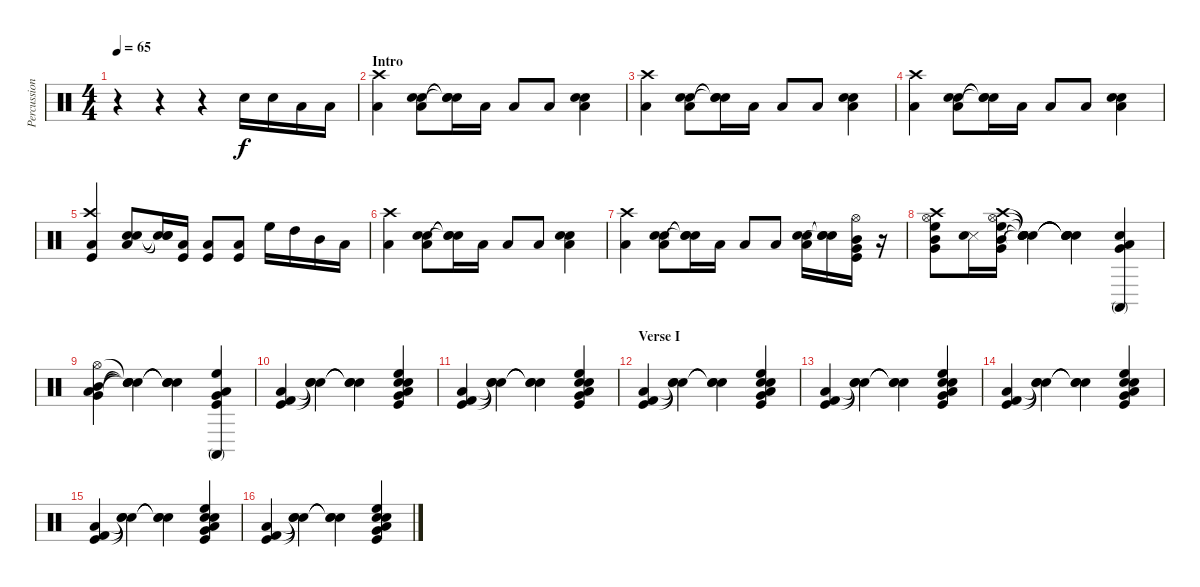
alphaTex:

\track ("Percussion" "Percussion") {instrument percussion}
\staff {score}
\articulation defaults
\ts (4 4)
\tempo 65
\clef neutral
\ks c
r.4{dy f} r.4 r.4 "Electric Snare (hit)".16 "Snare (hit) 2".16 "Low Tom (hit)".16 "Low Floor Tom (hit)".16 |
\section ("" "Intro")
("Crash high (hit)" "Low Tom (hit)").4 ("Snare (hit) 2" "Electric Snare (hit)" "Low Tom (hit)").8 ("Snare (hit)"{t} "Snare (hit)"{t} "Snare (hit)"{t}).16 "Low Tom (hit)".16 "Low Tom (hit)".8 "Low Tom (hit)".8 ("Snare (hit) 2" "Electric Snare (hit)" "Low Tom (hit)").4 |
("Crash high (hit)" "Low Tom (hit)").4 ("Snare (hit) 2" "Electric Snare (hit)" "Low Tom (hit)").8 ("Snare (hit)"{t} "Snare (hit)"{t} "Snare (hit)"{t}).16 "Low Tom (hit)".16 "Low Tom (hit)".8 "Low Tom (hit)".8 ("Snare (hit) 2" "Electric Snare (hit)" "Low Tom (hit)").4 |
("Crash high (hit)" "Low Tom (hit)").4 ("Snare (hit) 2" "Electric Snare (hit)" "Low Tom (hit)").8 ("Snare (hit)"{t} "Snare (hit)"{t} "Snare (hit)"{t}).16 "Low Tom (hit)".16 "Low Tom (hit)".8 "Low Tom (hit)".8 ("Snare (hit) 2" "Electric Snare (hit)" "Low Tom (hit)").4 |
("Crash high (hit)" "Low Tom (hit)" "Kick (hit)").4 ("Hand Clap (hit)" "Low Tom (hit)" "Electric Snare (hit)").8 ("Snare (hit)"{t} "Snare (hit)"{t} "Snare (hit)"{t}).16 ("Low Tom (hit)" "Kick (hit)").16 ("Low Tom (hit)" "Kick (hit)").8 ("Low Tom (hit)" "Kick (hit)").8 "High Floor Tom (hit)".16 "High Tom (hit)".16 "Mid Tom (hit)".16 "Low Tom (hit)".16 |
("Crash high (hit)" "Low Tom (hit)").4 ("Snare (hit) 2" "Electric Snare (hit)" "Low Tom (hit)").8 ("Snare (hit)"{t} "Snare (hit)"{t} "Snare (hit)"{t}).16 "Low Tom (hit)".16 "Low Tom (hit)".8 "Low Tom (hit)".8 ("Snare (hit) 2" "Electric Snare (hit)" "Low Tom (hit)").4 |
("Crash high (hit)" "Low Tom (hit)").4 ("Hand Clap (hit)" "Electric Snare (hit)" "Low Tom (hit)").8 ("Snare (hit)"{t} "Snare (hit)"{t} "Snare (hit)"{t}).16 "Low Tom (hit)".16 "Low Tom (hit)".8 "Low Tom (hit)".8 ("Hand Clap (hit)" "Electric Snare (hit)" "Low Tom (hit)").16 ("Snare (hit)"{t} "Snare (hit)"{t} "Snare (hit)"{t}).16 ("Mid Tom (hit)" "Very Low Tom (hit)" "Kick (hit)" "Hi-Hat (open)").16 r.16 |
("Mid Tom (hit)" "Very Low Tom (hit)" "Hi-Hat (open)" "High Floor Tom (hit)" "Crash high (hit)").8 ("Snare (side stick) 3" "Hand Clap (hit)").16 ("Mid Tom (hit)" "Very Low Tom (hit)" "Hi-Hat (open)" "High Floor Tom (hit)" "Crash high (hit)").16 ("Snare (hit)"{t} "Snare (hit)"{t} "Snare (hit)"{t} "Snare (hit)"{t} "Snare (hit)"{t}).4 ("Snare (hit)"{t} "Snare (hit)"{t} "Snare (hit)"{t} "Snare (hit)"{t} "Snare (hit)"{t}).4 ("Hand Clap (hit)" "Low Tom (hit)" "Very Low Tom (hit)" "Conga high (mute)").4 |
("Mid Tom (hit)" "Hi-Hat (open)" "Low Tom (hit)" "Very Low Tom (hit)").4 ("Snare (hit)"{t} "Snare (hit)"{t} "Snare (hit)"{t} "Snare (hit)"{t}).4 ("Snare (hit)"{t} "Snare (hit)"{t} "Snare (hit)"{t} "Snare (hit)"{t}).4 ("Conga high (mute)" "Kick (hit)" "High Floor Tom (hit)" "Low Tom (hit)" "Very Low Tom (hit)").4 |
("Low Floor Tom (hit)" "Kick (hit)" "Kick (hit) 2").4 ("Snare (hit)"{t} "Snare (hit)"{t} "Snare (hit)"{t}).4 ("Snare (hit)"{t} "Snare (hit)"{t} "Snare (hit)"{t}).4 ("Hand Clap (hit)" "Kick (hit)" "High Floor Tom (hit)" "Electric Snare (hit)" "Low Tom (hit)" "Very Low Tom (hit)").4 |
("Low Floor Tom (hit)" "Kick (hit)" "Kick (hit) 2").4 ("Snare (hit)"{t} "Snare (hit)"{t} "Snare (hit)"{t}).4 ("Snare (hit)"{t} "Snare (hit)"{t} "Snare (hit)"{t}).4 ("Electric Snare (hit)" "Kick (hit)" "High Floor Tom (hit)" "Hand Clap (hit)" "Low Tom (hit)" "Very Low Tom (hit)").4 |
\section ("" "Verse I")
("Low Floor Tom (hit)" "Kick (hit)" "Kick (hit) 2").4 ("Snare (hit)"{t} "Snare (hit)"{t} "Snare (hit)"{t}).4 ("Snare (hit)"{t} "Snare (hit)"{t} "Snare (hit)"{t}).4 ("Electric Snare (hit)" "Kick (hit)" "High Floor Tom (hit)" "Hand Clap (hit)" "Low Tom (hit)" "Very Low Tom (hit)").4 |
("Low Floor Tom (hit)" "Kick (hit)" "Kick (hit) 2").4 ("Snare (hit)"{t} "Snare (hit)"{t} "Snare (hit)"{t}).4 ("Snare (hit)"{t} "Snare (hit)"{t} "Snare (hit)"{t}).4 ("Electric Snare (hit)" "Kick (hit)" "High Floor Tom (hit)" "Hand Clap (hit)" "Low Tom (hit)" "Very Low Tom (hit)").4 |
("Low Floor Tom (hit)" "Kick (hit)" "Kick (hit) 2").4 ("Snare (hit)"{t} "Snare (hit)"{t} "Snare (hit)"{t}).4 ("Snare (hit)"{t} "Snare (hit)"{t} "Snare (hit)"{t}).4 ("Electric Snare (hit)" "Kick (hit)" "High Floor Tom (hit)" "Hand Clap (hit)" "Low Tom (hit)" "Very Low Tom (hit)").4 |
("Low Floor Tom (hit)" "Kick (hit)" "Kick (hit) 2").4 ("Snare (hit)"{t} "Snare (hit)"{t} "Snare (hit)"{t}).4 ("Snare (hit)"{t} "Snare (hit)"{t} "Snare (hit)"{t}).4 ("Electric Snare (hit)" "Kick (hit)" "High Floor Tom (hit)" "Hand Clap (hit)" "Low Tom (hit)" "Very Low Tom (hit)").4 |
("Low Floor Tom (hit)" "Kick (hit)" "Kick (hit) 2").4 ("Snare (hit)"{t} "Snare (hit)"{t} "Snare (hit)"{t}).4 ("Snare (hit)"{t} "Snare (hit)"{t} "Snare (hit)"{t}).4 ("Electric Snare (hit)" "Kick (hit)" "High Floor Tom (hit)" "Hand Clap (hit)" "Low Tom (hit)" "Very Low Tom (hit)").4
